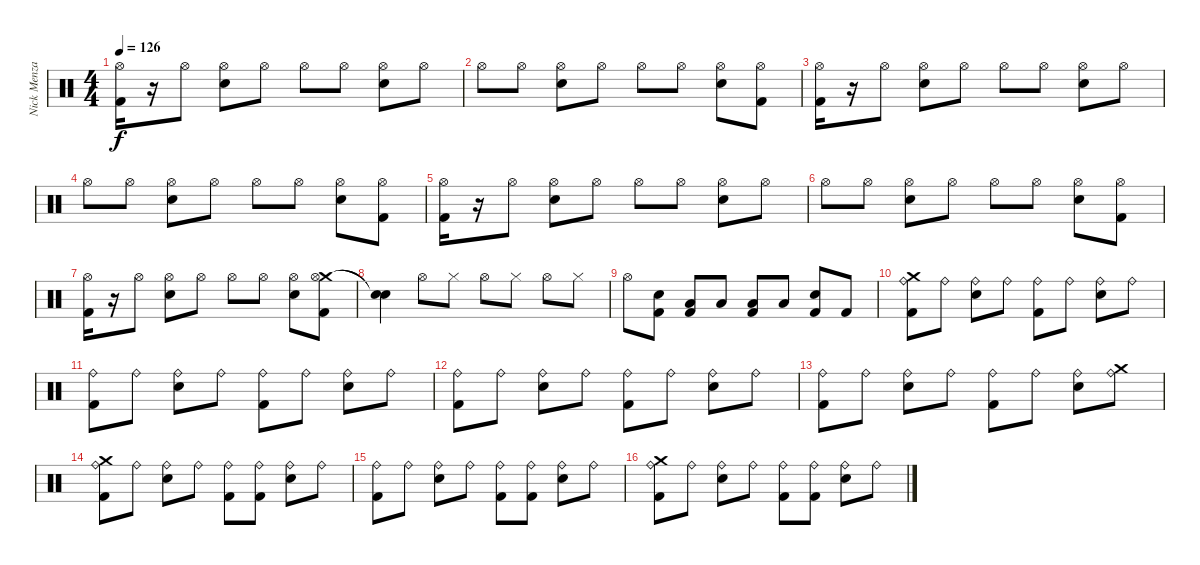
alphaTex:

\track ("Nick Menza" "Nick Menza") {instrument percussion}
\staff {score}
\articulation defaults
\ts (4 4)
\tempo 126
\clef neutral
\ks c
("Hi-Hat (open)" "Kick (hit) 2").16{dy f} r.16 "Hi-Hat (open)".8 ("Snare (hit) 2" "Hi-Hat (open)").8 "Hi-Hat (open)".8 "Hi-Hat (open)".8 "Hi-Hat (open)".8 ("Snare (hit) 2" "Hi-Hat (open)").8 "Hi-Hat (open)".8 |
"Hi-Hat (open)".8 "Hi-Hat (open)".8 ("Snare (hit) 2" "Hi-Hat (open)").8 "Hi-Hat (open)".8 "Hi-Hat (open)".8 "Hi-Hat (open)".8 ("Snare (hit) 2" "Hi-Hat (open)").8 ("Hi-Hat (open)" "Kick (hit) 2").8 |
("Hi-Hat (open)" "Kick (hit) 2").16 r.16 "Hi-Hat (open)".8 ("Snare (hit) 2" "Hi-Hat (open)").8 "Hi-Hat (open)".8 "Hi-Hat (open)".8 "Hi-Hat (open)".8 ("Snare (hit) 2" "Hi-Hat (open)").8 "Hi-Hat (open)".8 |
"Hi-Hat (open)".8 "Hi-Hat (open)".8 ("Snare (hit) 2" "Hi-Hat (open)").8 "Hi-Hat (open)".8 "Hi-Hat (open)".8 "Hi-Hat (open)".8 ("Snare (hit) 2" "Hi-Hat (open)").8 ("Hi-Hat (open)" "Kick (hit) 2").8 |
("Hi-Hat (open)" "Kick (hit) 2").16 r.16 "Hi-Hat (open)".8 ("Snare (hit) 2" "Hi-Hat (open)").8 "Hi-Hat (open)".8 "Hi-Hat (open)".8 "Hi-Hat (open)".8 ("Snare (hit) 2" "Hi-Hat (open)").8 "Hi-Hat (open)".8 |
"Hi-Hat (open)".8 "Hi-Hat (open)".8 ("Snare (hit) 2" "Hi-Hat (open)").8 "Hi-Hat (open)".8 "Hi-Hat (open)".8 "Hi-Hat (open)".8 ("Snare (hit) 2" "Hi-Hat (open)").8 ("Hi-Hat (open)" "Kick (hit) 2").8 |
("Hi-Hat (open)" "Kick (hit) 2").16 r.16 "Hi-Hat (open)".8 ("Snare (hit) 2" "Hi-Hat (open)").8 "Hi-Hat (open)".8 "Hi-Hat (open)".8 "Hi-Hat (open)".8 ("Snare (hit) 2" "Hi-Hat (open)").8 ("Crash medium (hit)" "Hi-Hat (open)" "Kick (hit) 2").8 |
("Snare (hit)"{t} "Snare (hit)"{t}).4 "Hi-Hat (open)".8 "Hi-Hat (closed)".8 "Hi-Hat (open)".8 "Hi-Hat (closed)".8 "Hi-Hat (open)".8 "Hi-Hat (closed)".8 |
"Hi-Hat (open)".8 ("Snare (hit) 2" "Kick (hit) 2").8 ("Low Tom (hit)" "Kick (hit) 2").8 "Low Tom (hit)".8 ("Low Floor Tom (hit)" "Kick (hit) 2").8 "Low Tom (hit)".8 ("Snare (hit) 2" "Kick (hit) 2").8 "Kick (hit) 2".8 |
("Crash medium (hit)" "Ride (bell)" "Kick (hit) 2").8 "Ride (bell)".8 ("Snare (hit) 2" "Ride (bell)").8 "Ride (bell)".8 ("Ride (bell)" "Kick (hit) 2").8 "Ride (bell)".8 ("Snare (hit) 2" "Ride (bell)").8 "Ride (bell)".8 |
("Ride (bell)" "Kick (hit) 2").8 "Ride (bell)".8 ("Snare (hit) 2" "Ride (bell)").8 "Ride (bell)".8 ("Ride (bell)" "Kick (hit) 2").8 "Ride (bell)".8 ("Snare (hit) 2" "Ride (bell)").8 "Ride (bell)".8 |
("Ride (bell)" "Kick (hit) 2").8 "Ride (bell)".8 ("Snare (hit) 2" "Ride (bell)").8 "Ride (bell)".8 ("Ride (bell)" "Kick (hit) 2").8 "Ride (bell)".8 ("Snare (hit) 2" "Ride (bell)").8 "Ride (bell)".8 |
("Ride (bell)" "Kick (hit) 2").8 "Ride (bell)".8 ("Snare (hit) 2" "Ride (bell)").8 "Ride (bell)".8 ("Ride (bell)" "Kick (hit) 2").8 "Ride (bell)".8 ("Snare (hit) 2" "Ride (bell)").8 ("Crash medium (hit)" "Ride (bell)").8 |
("Crash medium (hit)" "Ride (bell)" "Kick (hit) 2").8 "Ride (bell)".8 ("Snare (hit) 2" "Ride (bell)").8 "Ride (bell)".8 ("Ride (bell)" "Kick (hit) 2").8 ("Ride (bell)" "Kick (hit) 2").8 ("Snare (hit) 2" "Ride (bell)").8 "Ride (bell)".8 |
("Ride (bell)" "Kick (hit) 2").8 "Ride (bell)".8 ("Snare (hit) 2" "Ride (bell)").8 "Ride (bell)".8 ("Ride (bell)" "Kick (hit) 2").8 ("Ride (bell)" "Kick (hit) 2").8 ("Snare (hit) 2" "Ride (bell)").8 "Ride (bell)".8 |
("Crash medium (hit)" "Ride (bell)" "Kick (hit) 2").8 "Ride (bell)".8 ("Snare (hit) 2" "Ride (bell)").8 "Ride (bell)".8 ("Ride (bell)" "Kick (hit) 2").8 ("Ride (bell)" "Kick (hit) 2").8 ("Snare (hit) 2" "Ride (bell)").8 "Ride (bell)".8
